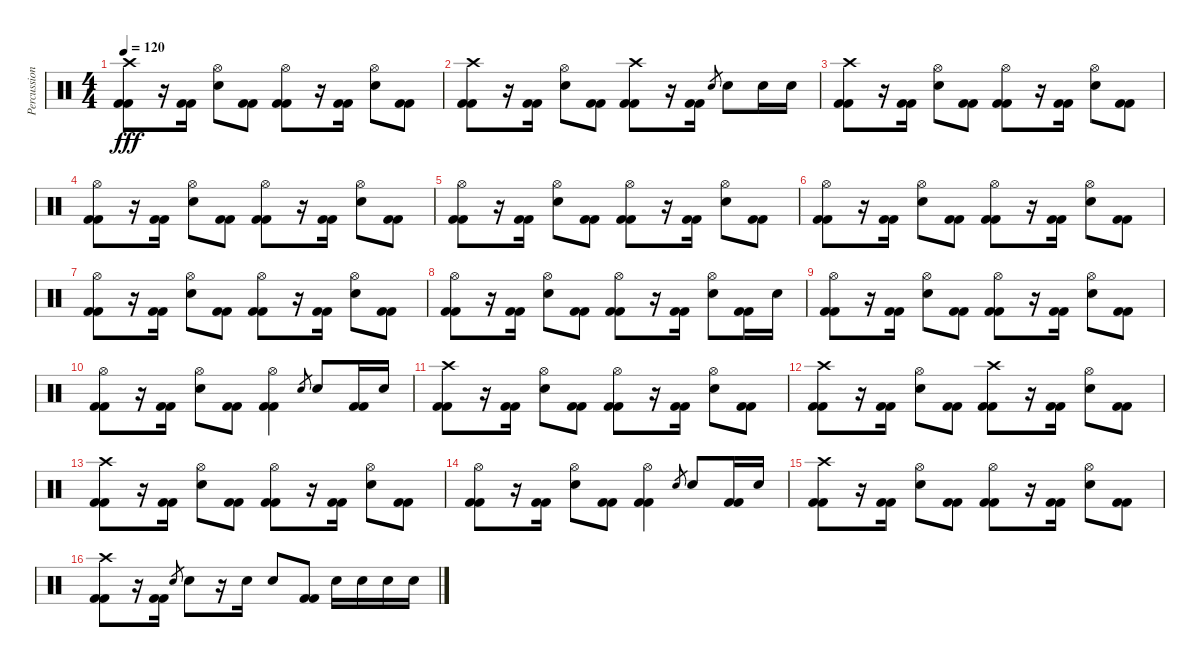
\track ("Percussioni" "Percussion") {instrument percussion}
\staff {score}
\articulation defaults
\ts (4 4)
\tempo 120
\clef neutral
\ks c
("Crash high (hit)" "Kick (hit) 2" "Kick (hit) 2").8{dy fff} r.16 ("Kick (hit) 2" "Kick (hit) 2").16 ("Hi-Hat (open)" "Snare (hit) 2").8 ("Kick (hit) 2" "Kick (hit) 2").8 ("Hi-Hat (open)" "Kick (hit) 2" "Kick (hit) 2").8 r.16 ("Kick (hit) 2" "Kick (hit) 2").16 ("Hi-Hat (open)" "Snare (hit) 2").8 ("Kick (hit) 2" "Kick (hit) 2").8 |
("Crash high (hit)" "Kick (hit) 2" "Kick (hit) 2").8 r.16 ("Kick (hit) 2" "Kick (hit) 2").16 ("Hi-Hat (open)" "Snare (hit) 2").8 ("Kick (hit) 2" "Kick (hit) 2").8 ("Crash high (hit)" "Kick (hit) 2" "Kick (hit) 2").8 r.16 ("Kick (hit) 2" "Kick (hit) 2").16 "Snare (hit) 2".8{gr} "Snare (hit) 2".8 "Snare (hit) 2".16 "Snare (hit) 2".16 |
("Crash high (hit)" "Kick (hit) 2" "Kick (hit) 2").8 r.16 ("Kick (hit) 2" "Kick (hit) 2").16 ("Hi-Hat (open)" "Snare (hit) 2").8 ("Kick (hit) 2" "Kick (hit) 2").8 ("Hi-Hat (open)" "Kick (hit) 2" "Kick (hit) 2").8 r.16 ("Kick (hit) 2" "Kick (hit) 2").16 ("Hi-Hat (open)" "Snare (hit) 2").8 ("Kick (hit) 2" "Kick (hit) 2").8 |
("Hi-Hat (open)" "Kick (hit) 2" "Kick (hit) 2").8 r.16 ("Kick (hit) 2" "Kick (hit) 2").16 ("Hi-Hat (open)" "Snare (hit) 2").8 ("Kick (hit) 2" "Kick (hit) 2").8 ("Hi-Hat (open)" "Kick (hit) 2" "Kick (hit) 2").8 r.16 ("Kick (hit) 2" "Kick (hit) 2").16 ("Hi-Hat (open)" "Snare (hit) 2").8 ("Kick (hit) 2" "Kick (hit) 2").8 |
("Hi-Hat (open)" "Kick (hit) 2" "Kick (hit) 2").8 r.16 ("Kick (hit) 2" "Kick (hit) 2").16 ("Hi-Hat (open)" "Snare (hit) 2").8 ("Kick (hit) 2" "Kick (hit) 2").8 ("Hi-Hat (open)" "Kick (hit) 2" "Kick (hit) 2").8 r.16 ("Kick (hit) 2" "Kick (hit) 2").16 ("Hi-Hat (open)" "Snare (hit) 2").8 ("Kick (hit) 2" "Kick (hit) 2").8 |
("Hi-Hat (open)" "Kick (hit) 2" "Kick (hit) 2").8 r.16 ("Kick (hit) 2" "Kick (hit) 2").16 ("Hi-Hat (open)" "Snare (hit) 2").8 ("Kick (hit) 2" "Kick (hit) 2").8 ("Hi-Hat (open)" "Kick (hit) 2" "Kick (hit) 2").8 r.16 ("Kick (hit) 2" "Kick (hit) 2").16 ("Hi-Hat (open)" "Snare (hit) 2").8 ("Kick (hit) 2" "Kick (hit) 2").8 |
("Hi-Hat (open)" "Kick (hit) 2" "Kick (hit) 2").8 r.16 ("Kick (hit) 2" "Kick (hit) 2").16 ("Hi-Hat (open)" "Snare (hit) 2").8 ("Kick (hit) 2" "Kick (hit) 2").8 ("Hi-Hat (open)" "Kick (hit) 2" "Kick (hit) 2").8 r.16 ("Kick (hit) 2" "Kick (hit) 2").16 ("Hi-Hat (open)" "Snare (hit) 2").8 ("Kick (hit) 2" "Kick (hit) 2").8 |
("Hi-Hat (open)" "Kick (hit) 2" "Kick (hit) 2").8 r.16 ("Kick (hit) 2" "Kick (hit) 2").16 ("Hi-Hat (open)" "Snare (hit) 2").8 ("Kick (hit) 2" "Kick (hit) 2").8 ("Hi-Hat (open)" "Kick (hit) 2" "Kick (hit) 2").8 r.16 ("Kick (hit) 2" "Kick (hit) 2").16 ("Hi-Hat (open)" "Snare (hit) 2").8 ("Kick (hit) 2" "Kick (hit) 2").16 "Snare (hit) 2".16 |
("Hi-Hat (open)" "Kick (hit) 2" "Kick (hit) 2").8 r.16 ("Kick (hit) 2" "Kick (hit) 2").16 ("Hi-Hat (open)" "Snare (hit) 2").8 ("Kick (hit) 2" "Kick (hit) 2").8 ("Hi-Hat (open)" "Kick (hit) 2" "Kick (hit) 2").8 r.16 ("Kick (hit) 2" "Kick (hit) 2").16 ("Hi-Hat (open)" "Snare (hit) 2").8 ("Kick (hit) 2" "Kick (hit) 2").8 |
("Hi-Hat (open)" "Kick (hit) 2" "Kick (hit) 2").8 r.16 ("Kick (hit) 2" "Kick (hit) 2").16 ("Hi-Hat (open)" "Snare (hit) 2").8 ("Kick (hit) 2" "Kick (hit) 2").8 ("Hi-Hat (open)" "Kick (hit) 2" "Kick (hit) 2").4 "Snare (hit) 2".8{gr} "Snare (hit) 2".8 ("Kick (hit) 2" "Kick (hit) 2").16 "Snare (hit) 2".16 |
("Crash high (hit)" "Kick (hit) 2" "Kick (hit) 2").8 r.16 ("Kick (hit) 2" "Kick (hit) 2").16 ("Hi-Hat (open)" "Snare (hit) 2").8 ("Kick (hit) 2" "Kick (hit) 2").8 ("Hi-Hat (open)" "Kick (hit) 2" "Kick (hit) 2").8 r.16 ("Kick (hit) 2" "Kick (hit) 2").16 ("Hi-Hat (open)" "Snare (hit) 2").8 ("Kick (hit) 2" "Kick (hit) 2").8 |
("Crash high (hit)" "Kick (hit) 2" "Kick (hit) 2").8 r.16 ("Kick (hit) 2" "Kick (hit) 2").16 ("Hi-Hat (open)" "Snare (hit) 2").8 ("Kick (hit) 2" "Kick (hit) 2").8 ("Crash high (hit)" "Kick (hit) 2" "Kick (hit) 2").8 r.16 ("Kick (hit) 2" "Kick (hit) 2").16 ("Hi-Hat (open)" "Snare (hit) 2").8 ("Kick (hit) 2" "Kick (hit) 2").8 |
("Crash high (hit)" "Kick (hit) 2" "Kick (hit) 2").8 r.16 ("Kick (hit) 2" "Kick (hit) 2").16 ("Hi-Hat (open)" "Snare (hit) 2").8 ("Kick (hit) 2" "Kick (hit) 2").8 ("Hi-Hat (open)" "Kick (hit) 2" "Kick (hit) 2").8 r.16 ("Kick (hit) 2" "Kick (hit) 2").16 ("Hi-Hat (open)" "Snare (hit) 2").8 ("Kick (hit) 2" "Kick (hit) 2").8 |
("Hi-Hat (open)" "Kick (hit) 2" "Kick (hit) 2").8 r.16 ("Kick (hit) 2" "Kick (hit) 2").16 ("Hi-Hat (open)" "Snare (hit) 2").8 ("Kick (hit) 2" "Kick (hit) 2").8 ("Hi-Hat (open)" "Kick (hit) 2" "Kick (hit) 2").4 "Snare (hit) 2".8{gr} "Snare (hit) 2".8 ("Kick (hit) 2" "Kick (hit) 2").16 "Snare (hit) 2".16 |
("Crash high (hit)" "Kick (hit) 2" "Kick (hit) 2").8 r.16 ("Kick (hit) 2" "Kick (hit) 2").16 ("Hi-Hat (open)" "Snare (hit) 2").8 ("Kick (hit) 2" "Kick (hit) 2").8 ("Hi-Hat (open)" "Kick (hit) 2" "Kick (hit) 2").8 r.16 ("Kick (hit) 2" "Kick (hit) 2").16 ("Hi-Hat (open)" "Snare (hit) 2").8 ("Kick (hit) 2" "Kick (hit) 2").8 |
("Crash high (hit)" "Kick (hit) 2" "Kick (hit) 2").8 r.16 ("Kick (hit) 2" "Kick (hit) 2").16 "Snare (hit) 2".8{gr} "Snare (hit) 2".8 r.16 "Snare (hit) 2".16 "Snare (hit) 2".8 ("Kick (hit) 2" "Kick (hit) 2").8 "Snare (hit) 2".16 "Snare (hit) 2".16 "Snare (hit) 2".16 "Snare (hit) 2".16
